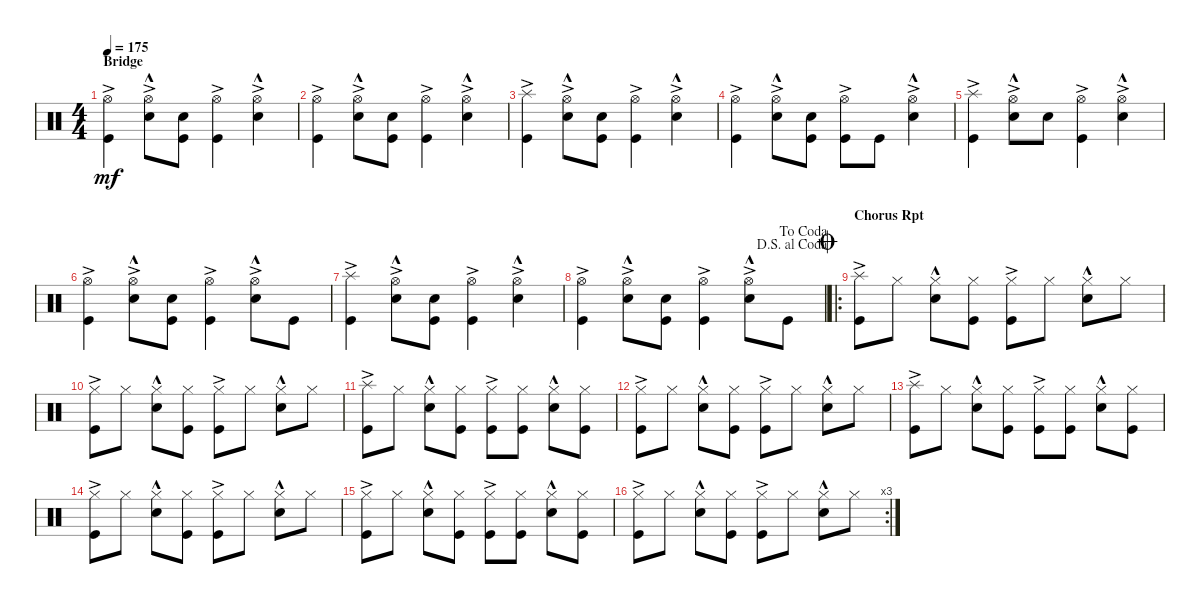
\defaultSystemsLayout 4
\bracketExtendMode nobrackets
\singleTrackTrackNamePolicy hidden
\multiTrackTrackNamePolicy hidden
\firstSystemTrackNameOrientation horizontal
\otherSystemsTrackNameOrientation horizontal
\track ("Drumkit" "Drums") {instrument percussion}
\staff {score}
\articulation defaults
\ts (4 4)
\section ("" "Bridge")
\tempo 175
\clef neutral
\ks c
("Kick (hit)"{ac} "Hi-Hat (open)"{ac}).4{dy mf} ("Hi-Hat (open)"{ac} "Snare (hit) 2"{hac}).8 ("Kick (hit)" "Snare (hit) 2").8 ("Kick (hit)"{ac} "Hi-Hat (open)"{ac}).4 ("Hi-Hat (open)"{ac} "Snare (hit) 2"{hac}).4 |
("Kick (hit)"{ac} "Hi-Hat (open)"{ac}).4 ("Hi-Hat (open)"{ac} "Snare (hit) 2"{hac}).8 ("Snare (hit) 2" "Kick (hit)").8 ("Kick (hit)"{ac} "Hi-Hat (open)"{ac}).4 ("Hi-Hat (open)"{ac} "Snare (hit) 2"{hac}).4 |
("Kick (hit)"{ac} "Splash (hit)").4 ("Hi-Hat (open)"{ac} "Snare (hit) 2"{hac}).8 ("Kick (hit)" "Snare (hit) 2").8 ("Kick (hit)"{ac} "Hi-Hat (open)"{ac}).4 ("Hi-Hat (open)"{ac} "Snare (hit) 2"{hac}).4 |
("Kick (hit)"{ac} "Hi-Hat (open)"{ac}).4 ("Hi-Hat (open)"{ac} "Snare (hit) 2"{hac}).8 ("Snare (hit) 2" "Kick (hit)").8 ("Kick (hit)"{ac} "Hi-Hat (open)"{ac}).8 "Kick (hit)".8 ("Hi-Hat (open)"{ac} "Snare (hit) 2"{hac}).4 |
("Kick (hit)"{ac} "Splash (hit)").4 ("Hi-Hat (open)"{ac} "Snare (hit) 2"{hac}).8 "Snare (hit) 2".8 ("Kick (hit)"{ac} "Hi-Hat (open)"{ac}).4 ("Hi-Hat (open)"{ac} "Snare (hit) 2"{hac}).4 |
("Kick (hit)"{ac} "Hi-Hat (open)"{ac}).4 ("Hi-Hat (open)"{ac} "Snare (hit) 2"{hac}).8 ("Kick (hit)" "Snare (hit) 2").8 ("Kick (hit)"{ac} "Hi-Hat (open)"{ac}).4 ("Hi-Hat (open)"{ac} "Snare (hit) 2"{hac}).8 "Kick (hit)".8 |
("Kick (hit)"{ac} "Splash (hit)").4 ("Hi-Hat (open)"{ac} "Snare (hit) 2"{hac}).8 ("Kick (hit)" "Snare (hit) 2").8 ("Kick (hit)"{ac} "Hi-Hat (open)"{ac}).4 ("Hi-Hat (open)"{ac} "Snare (hit) 2"{hac}).4 |
\jump dalsegnoalcoda
\jump dacoda
("Kick (hit)"{ac} "Hi-Hat (open)"{ac}).4 ("Hi-Hat (open)"{ac} "Snare (hit) 2"{hac}).8 ("Kick (hit)" "Snare (hit) 2").8 ("Kick (hit)"{ac} "Hi-Hat (open)"{ac}).4 ("Hi-Hat (open)"{ac} "Snare (hit) 2"{hac}).8 "Kick (hit)".8 |
\ro
\section ("" "Chorus Rpt")
\jump coda
("Kick (hit)"{ac} "Splash (hit)").8 "Hi-Hat (closed)".8 ("Hi-Hat (closed)" "Snare (hit) 2"{hac}).8 ("Hi-Hat (closed)" "Kick (hit)").8 ("Kick (hit)"{ac} "Hi-Hat (closed)").8 "Hi-Hat (closed)".8 ("Hi-Hat (closed)" "Snare (hit) 2"{hac}).8 "Hi-Hat (closed)".8 |
("Kick (hit)"{ac} "Hi-Hat (closed)").8 "Hi-Hat (closed)".8 ("Hi-Hat (closed)" "Snare (hit) 2"{hac}).8 ("Hi-Hat (closed)" "Kick (hit)").8 ("Kick (hit)"{ac} "Hi-Hat (closed)").8 "Hi-Hat (closed)".8 ("Hi-Hat (closed)" "Snare (hit) 2"{hac}).8 "Hi-Hat (closed)".8 |
("Kick (hit)"{ac} "Splash (hit)").8 "Hi-Hat (closed)".8 ("Hi-Hat (closed)" "Snare (hit) 2"{hac}).8 ("Hi-Hat (closed)" "Kick (hit)").8 ("Kick (hit)"{ac} "Hi-Hat (closed)").8 ("Hi-Hat (closed)" "Kick (hit)").8 ("Hi-Hat (closed)" "Snare (hit) 2"{hac}).8 ("Hi-Hat (closed)" "Kick (hit)").8 |
("Kick (hit)"{ac} "Hi-Hat (closed)").8 "Hi-Hat (closed)".8 ("Hi-Hat (closed)" "Snare (hit) 2"{hac}).8 ("Hi-Hat (closed)" "Kick (hit)").8 ("Kick (hit)"{ac} "Hi-Hat (closed)").8 "Hi-Hat (closed)".8 ("Hi-Hat (closed)" "Snare (hit) 2"{hac}).8 "Hi-Hat (closed)".8 |
("Kick (hit)"{ac} "Splash (hit)").8 "Hi-Hat (closed)".8 ("Hi-Hat (closed)" "Snare (hit) 2"{hac}).8 ("Hi-Hat (closed)" "Kick (hit)").8 ("Kick (hit)"{ac} "Hi-Hat (closed)").8 ("Hi-Hat (closed)" "Kick (hit)").8 ("Hi-Hat (closed)" "Snare (hit) 2"{hac}).8 ("Hi-Hat (closed)" "Kick (hit)").8 |
("Kick (hit)"{ac} "Hi-Hat (closed)").8 "Hi-Hat (closed)".8 ("Hi-Hat (closed)" "Snare (hit) 2"{hac}).8 ("Hi-Hat (closed)" "Kick (hit)").8 ("Kick (hit)"{ac} "Hi-Hat (closed)").8 "Hi-Hat (closed)".8 ("Hi-Hat (closed)" "Snare (hit) 2"{hac}).8 "Hi-Hat (closed)".8 |
("Kick (hit)"{ac} "Hi-Hat (closed)").8 "Hi-Hat (closed)".8 ("Hi-Hat (closed)" "Snare (hit) 2"{hac}).8 ("Hi-Hat (closed)" "Kick (hit)").8 ("Kick (hit)"{ac} "Hi-Hat (closed)").8 ("Hi-Hat (closed)" "Kick (hit)").8 ("Hi-Hat (closed)" "Snare (hit) 2"{hac}).8 ("Hi-Hat (closed)" "Kick (hit)").8 |
\rc 3
("Kick (hit)"{ac} "Hi-Hat (closed)").8 "Hi-Hat (closed)".8 ("Hi-Hat (closed)" "Snare (hit) 2"{hac}).8 ("Hi-Hat (closed)" "Kick (hit)").8 ("Kick (hit)"{ac} "Hi-Hat (closed)").8 "Hi-Hat (closed)".8 ("Hi-Hat (closed)" "Snare (hit) 2"{hac}).8 "Hi-Hat (closed)".8
